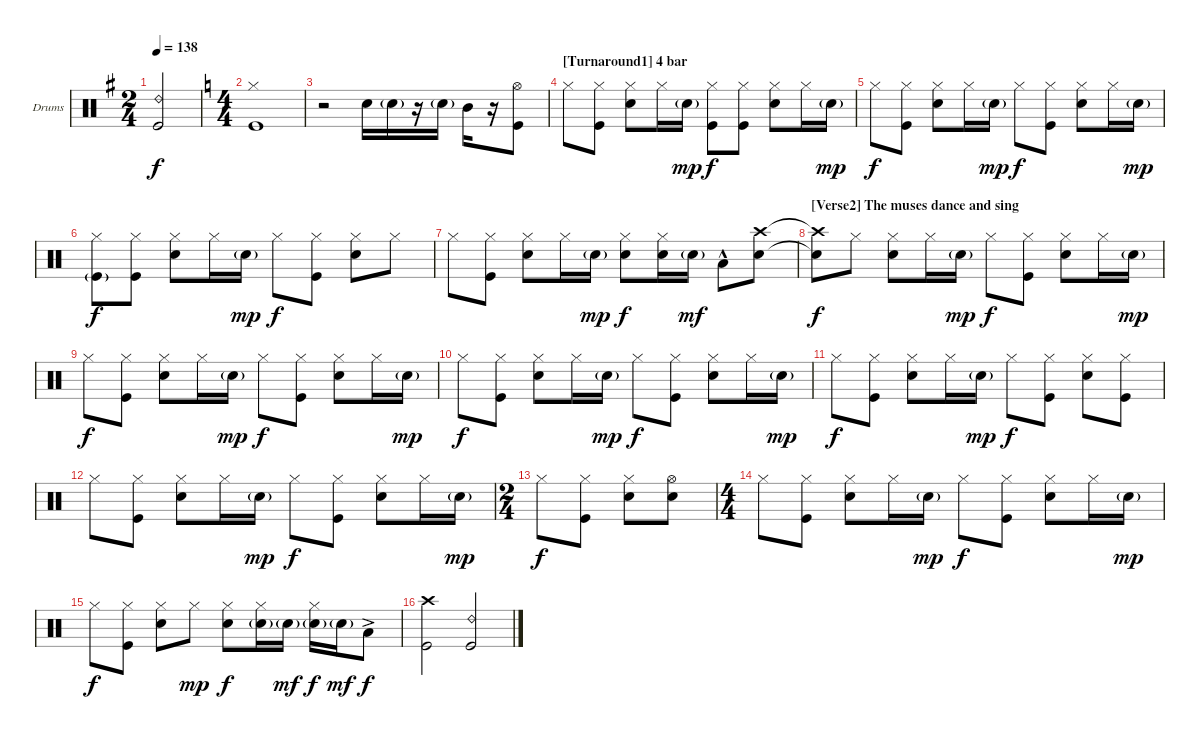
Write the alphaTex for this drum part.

\bracketExtendMode groupsimilarinstruments
\firstSystemTrackNameOrientation horizontal
\otherSystemsTrackNameOrientation horizontal
\track ("Drumkit" "Drums") {instrument percussion}
\staff {score}
\articulation defaults
\ts (2 4)
\tempo 138
\clef neutral
\ks eminor
("Kick (hit)" "Ride (bell) 2").2{dy f} |
\ts (4 4)
\ks aminor
("Kick (hit)" "Hi-Hat (closed)").1 |
r.2 "Snare (hit) 2".16 "Snare (hit) 2"{g}.16 r.16 "Snare (hit) 2"{g}.16 "Mid Tom (hit)".16 r.16 ("Kick (hit)" "Hi-Hat (open)").8 |
\section ("" "[Turnaround1] 4 bar")
"Hi-Hat (closed)".8 ("Hi-Hat (closed)" "Kick (hit)").8 ("Snare (hit) 2" "Hi-Hat (closed)").8 "Hi-Hat (closed)".16 "Snare (hit) 2"{g}.16{dy mp} ("Hi-Hat (closed)" "Kick (hit)").8{dy f} ("Kick (hit)" "Hi-Hat (closed)").8 ("Snare (hit) 2" "Hi-Hat (closed)").8 "Hi-Hat (closed)".16 "Snare (hit) 2"{g}.16{dy mp} |
"Hi-Hat (closed)".8{dy f} ("Hi-Hat (closed)" "Kick (hit)").8 ("Snare (hit) 2" "Hi-Hat (closed)").8 "Hi-Hat (closed)".16 "Snare (hit) 2"{g}.16{dy mp} "Hi-Hat (closed)".8{dy f} ("Kick (hit)" "Hi-Hat (closed)").8 ("Snare (hit) 2" "Hi-Hat (closed)").8 "Hi-Hat (closed)".16 "Snare (hit) 2"{g}.16{dy mp} |
("Hi-Hat (closed)" "Kick (hit)"{g}).8{dy f} ("Hi-Hat (closed)" "Kick (hit)").8 ("Snare (hit) 2" "Hi-Hat (closed)").8 "Hi-Hat (closed)".16 "Snare (hit) 2"{g}.16{dy mp} "Hi-Hat (closed)".8{dy f} ("Kick (hit)" "Hi-Hat (closed)").8 ("Snare (hit) 2" "Hi-Hat (closed)").8 "Hi-Hat (closed)".8 |
"Hi-Hat (closed)".8 ("Hi-Hat (closed)" "Kick (hit)").8 ("Snare (hit) 2" "Hi-Hat (closed)").8 "Hi-Hat (closed)".16 "Snare (hit) 2"{g}.16{dy mp} ("Snare (hit) 2" "Hi-Hat (closed)").8{dy f} ("Snare (hit) 2" "Hi-Hat (closed)").16 "Snare (hit) 2"{g}.16{dy mf} "Low Tom (hit)"{hac}.8 ("Snare (hit) 2" "Crash high (hit)").8 |
\section ("" "[Verse2] The muses dance and sing")
("Snare (hit) 2"{t} "Crash high (hit)"{t}).8{dy f} "Hi-Hat (closed)".8 ("Snare (hit) 2" "Hi-Hat (closed)").8 "Hi-Hat (closed)".16 "Snare (hit) 2"{g}.16{dy mp} "Hi-Hat (closed)".8{dy f} ("Kick (hit)" "Hi-Hat (closed)").8 ("Snare (hit) 2" "Hi-Hat (closed)").8 "Hi-Hat (closed)".16 "Snare (hit) 2"{g}.16{dy mp} |
"Hi-Hat (closed)".8{dy f} ("Hi-Hat (closed)" "Kick (hit)").8 ("Snare (hit) 2" "Hi-Hat (closed)").8 "Hi-Hat (closed)".16 "Snare (hit) 2"{g}.16{dy mp} "Hi-Hat (closed)".8{dy f} ("Kick (hit)" "Hi-Hat (closed)").8 ("Snare (hit) 2" "Hi-Hat (closed)").8 "Hi-Hat (closed)".16 "Snare (hit) 2"{g}.16{dy mp} |
"Hi-Hat (closed)".8{dy f} ("Hi-Hat (closed)" "Kick (hit)").8 ("Snare (hit) 2" "Hi-Hat (closed)").8 "Hi-Hat (closed)".16 "Snare (hit) 2"{g}.16{dy mp} "Hi-Hat (closed)".8{dy f} ("Kick (hit)" "Hi-Hat (closed)").8 ("Snare (hit) 2" "Hi-Hat (closed)").8 "Hi-Hat (closed)".16 "Snare (hit) 2"{g}.16{dy mp} |
"Hi-Hat (closed)".8{dy f} ("Hi-Hat (closed)" "Kick (hit)").8 ("Snare (hit) 2" "Hi-Hat (closed)").8 "Hi-Hat (closed)".16 "Snare (hit) 2"{g}.16{dy mp} "Hi-Hat (closed)".8{dy f} ("Kick (hit)" "Hi-Hat (closed)").8 ("Snare (hit) 2" "Hi-Hat (closed)").8 ("Hi-Hat (closed)" "Kick (hit)").8 |
"Hi-Hat (closed)".8 ("Hi-Hat (closed)" "Kick (hit)").8 ("Snare (hit) 2" "Hi-Hat (closed)").8 "Hi-Hat (closed)".16 "Snare (hit) 2"{g}.16{dy mp} "Hi-Hat (closed)".8{dy f} ("Kick (hit)" "Hi-Hat (closed)").8 ("Snare (hit) 2" "Hi-Hat (closed)").8 "Hi-Hat (closed)".16 "Snare (hit) 2"{g}.16{dy mp} |
\ts (2 4)
"Hi-Hat (closed)".8{dy f} ("Hi-Hat (closed)" "Kick (hit)").8 ("Snare (hit) 2" "Hi-Hat (closed)").8 ("Hi-Hat (open)" "Snare (hit) 2").8 |
\ts (4 4)
"Hi-Hat (closed)".8 ("Hi-Hat (closed)" "Kick (hit)").8 ("Snare (hit) 2" "Hi-Hat (closed)").8 "Hi-Hat (closed)".16 "Snare (hit) 2"{g}.16{dy mp} "Hi-Hat (closed)".8{dy f} ("Kick (hit)" "Hi-Hat (closed)").8 ("Snare (hit) 2" "Hi-Hat (closed)").8 "Hi-Hat (closed)".16 "Snare (hit) 2"{g}.16{dy mp} |
"Hi-Hat (closed)".8{dy f} ("Kick (hit)" "Hi-Hat (closed)").8 ("Snare (hit) 2" "Hi-Hat (closed)").8 "Hi-Hat (closed)".8{dy mp} ("Snare (hit) 2" "Hi-Hat (closed)").8{dy f} ("Snare (hit) 2"{g} "Hi-Hat (closed)").16 "Snare (hit) 2"{g}.16{dy mf} ("Snare (hit) 2"{g} "Hi-Hat (closed)").16{dy f} "Snare (hit) 2"{g}.16{dy mf} "Low Tom (hit)"{ac}.8{dy f} |
("Kick (hit)" "Crash high (hit)").2 ("Kick (hit)" "Ride (bell) 2").2
